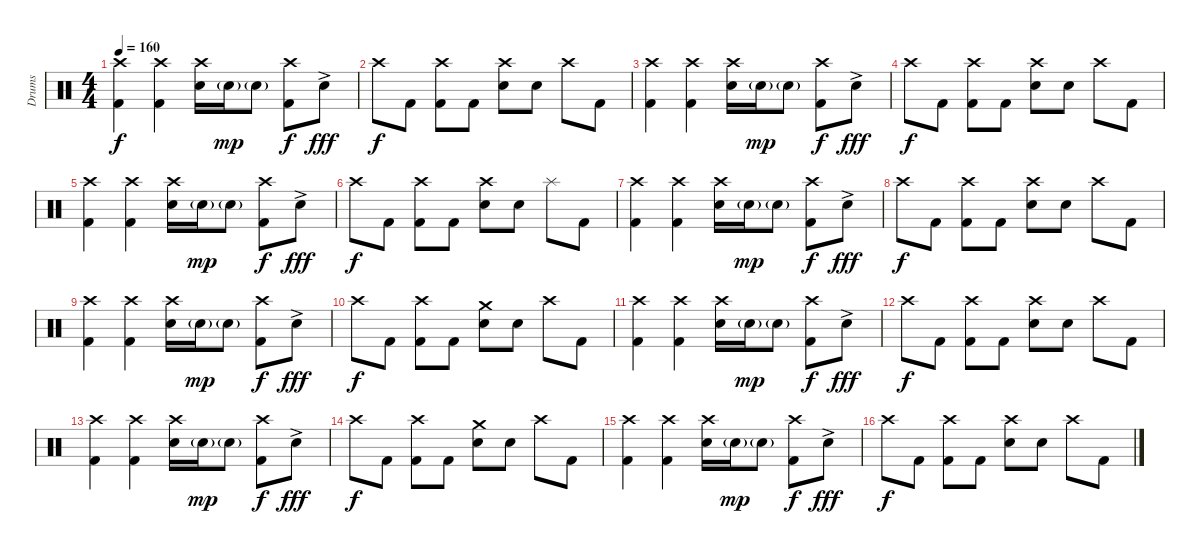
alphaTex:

\track ("Drums" "Drums") {instrument percussion}
\staff {score}
\articulation defaults
\ts (4 4)
\tempo 160
\clef neutral
\ks c
("Crash high (hit)" "Kick (hit) 2").4{dy f} ("Crash high (hit)" "Kick (hit) 2").4 ("Crash high (hit)" "Snare (hit) 2").16 "Snare (hit) 2"{g}.16{dy mp} "Snare (hit) 2"{g}.8 ("Crash high (hit)" "Kick (hit) 2").8{dy f} "Snare (hit) 2"{ac}.8{dy fff} |
"Crash high (hit)".8{dy f} "Kick (hit) 2".8 ("Crash high (hit)" "Kick (hit) 2").8 "Kick (hit) 2".8 ("Crash high (hit)" "Snare (hit) 2").8 "Snare (hit) 2".8 "Crash high (hit)".8 "Kick (hit) 2".8 |
("Crash high (hit)" "Kick (hit) 2").4 ("Crash high (hit)" "Kick (hit) 2").4 ("Crash high (hit)" "Snare (hit) 2").16 "Snare (hit) 2"{g}.16{dy mp} "Snare (hit) 2"{g}.8 ("Crash high (hit)" "Kick (hit) 2").8{dy f} "Snare (hit) 2"{ac}.8{dy fff} |
"Crash high (hit)".8{dy f} "Kick (hit) 2".8 ("Crash high (hit)" "Kick (hit) 2").8 "Kick (hit) 2".8 ("Crash high (hit)" "Snare (hit) 2").8 "Snare (hit) 2".8 "Crash high (hit)".8 "Kick (hit) 2".8 |
("Crash high (hit)" "Kick (hit) 2").4 ("Crash high (hit)" "Kick (hit) 2").4 ("Crash high (hit)" "Snare (hit) 2").16 "Snare (hit) 2"{g}.16{dy mp} "Snare (hit) 2"{g}.8 ("Crash high (hit)" "Kick (hit) 2").8{dy f} "Snare (hit) 2"{ac}.8{dy fff} |
"Crash high (hit)".8{dy f} "Kick (hit) 2".8 ("Crash high (hit)" "Kick (hit) 2").8 "Kick (hit) 2".8 ("Crash high (hit)" "Snare (hit) 2").8 "Snare (hit) 2".8 "Splash (hit)".8 "Kick (hit) 2".8 |
("Crash high (hit)" "Kick (hit) 2").4 ("Crash high (hit)" "Kick (hit) 2").4 ("Crash high (hit)" "Snare (hit) 2").16 "Snare (hit) 2"{g}.16{dy mp} "Snare (hit) 2"{g}.8 ("Crash high (hit)" "Kick (hit) 2").8{dy f} "Snare (hit) 2"{ac}.8{dy fff} |
"Crash high (hit)".8{dy f} "Kick (hit) 2".8 ("Crash high (hit)" "Kick (hit) 2").8 "Kick (hit) 2".8 ("Crash high (hit)" "Snare (hit) 2").8 "Snare (hit) 2".8 "Crash high (hit)".8 "Kick (hit) 2".8 |
("Crash high (hit)" "Kick (hit) 2").4 ("Crash high (hit)" "Kick (hit) 2").4 ("Crash high (hit)" "Snare (hit) 2").16 "Snare (hit) 2"{g}.16{dy mp} "Snare (hit) 2"{g}.8 ("Crash high (hit)" "Kick (hit) 2").8{dy f} "Snare (hit) 2"{ac}.8{dy fff} |
"Crash high (hit)".8{dy f} "Kick (hit) 2".8 ("Crash high (hit)" "Kick (hit) 2").8 "Kick (hit) 2".8 ("Crash medium (hit)" "Snare (hit) 2").8 "Snare (hit) 2".8 "Crash high (hit)".8 "Kick (hit) 2".8 |
("Crash high (hit)" "Kick (hit) 2").4 ("Crash high (hit)" "Kick (hit) 2").4 ("Crash high (hit)" "Snare (hit) 2").16 "Snare (hit) 2"{g}.16{dy mp} "Snare (hit) 2"{g}.8 ("Crash high (hit)" "Kick (hit) 2").8{dy f} "Snare (hit) 2"{ac}.8{dy fff} |
"Crash high (hit)".8{dy f} "Kick (hit) 2".8 ("Crash high (hit)" "Kick (hit) 2").8 "Kick (hit) 2".8 ("Crash high (hit)" "Snare (hit) 2").8 "Snare (hit) 2".8 "Crash high (hit)".8 "Kick (hit) 2".8 |
("Crash high (hit)" "Kick (hit) 2").4 ("Crash high (hit)" "Kick (hit) 2").4 ("Crash high (hit)" "Snare (hit) 2").16 "Snare (hit) 2"{g}.16{dy mp} "Snare (hit) 2"{g}.8 ("Crash high (hit)" "Kick (hit) 2").8{dy f} "Snare (hit) 2"{ac}.8{dy fff} |
"Crash high (hit)".8{dy f} "Kick (hit) 2".8 ("Crash high (hit)" "Kick (hit) 2").8 "Kick (hit) 2".8 ("Crash medium (hit)" "Snare (hit) 2").8 "Snare (hit) 2".8 "Crash high (hit)".8 "Kick (hit) 2".8 |
("Crash high (hit)" "Kick (hit) 2").4 ("Crash high (hit)" "Kick (hit) 2").4 ("Crash high (hit)" "Snare (hit) 2").16 "Snare (hit) 2"{g}.16{dy mp} "Snare (hit) 2"{g}.8 ("Crash high (hit)" "Kick (hit) 2").8{dy f} "Snare (hit) 2"{ac}.8{dy fff} |
"Crash high (hit)".8{dy f} "Kick (hit) 2".8 ("Crash high (hit)" "Kick (hit) 2").8 "Kick (hit) 2".8 ("Crash high (hit)" "Snare (hit) 2").8 "Snare (hit) 2".8 "Crash high (hit)".8 "Kick (hit) 2".8
